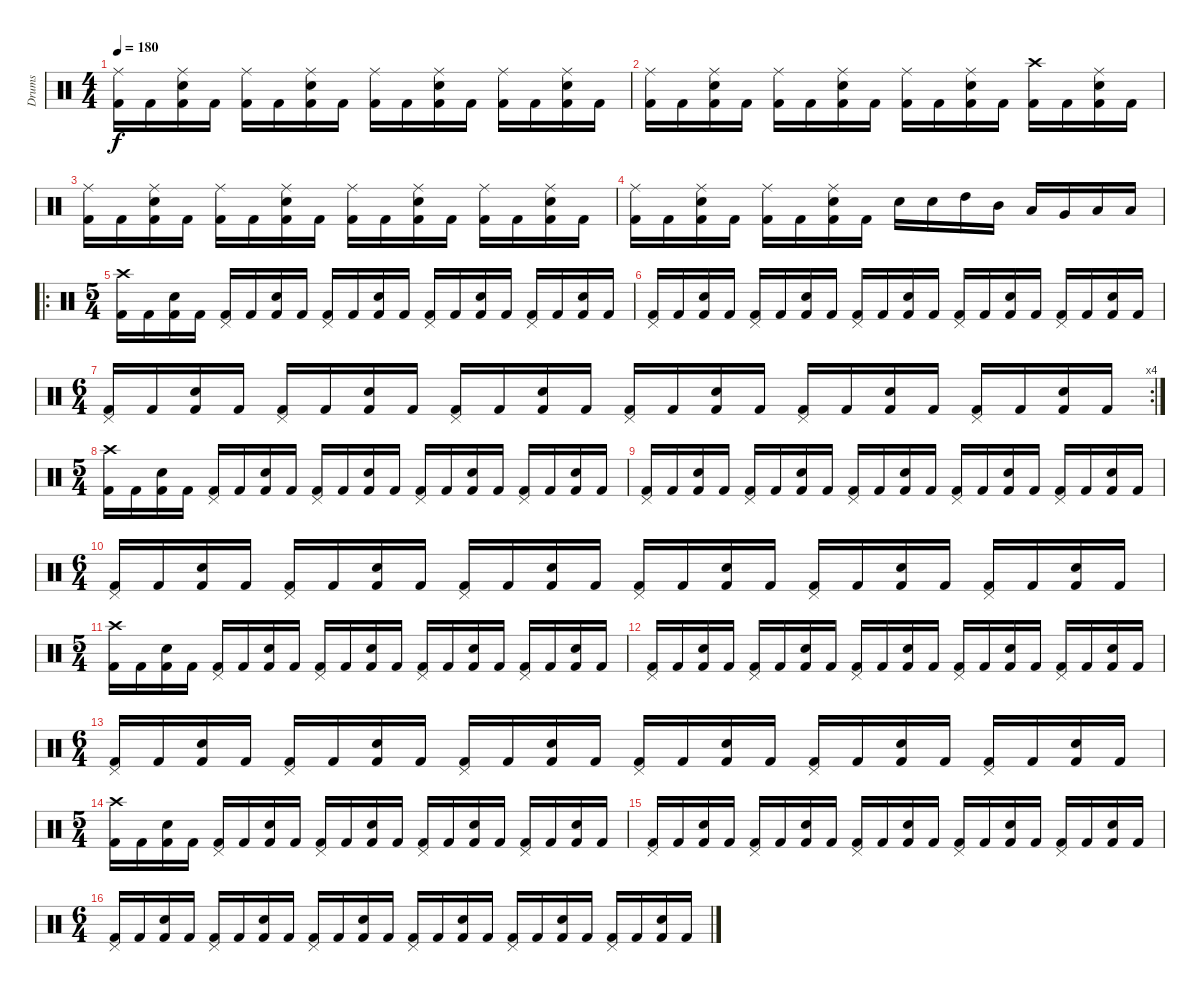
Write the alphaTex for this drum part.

\track ("Drums" "Drums") {instrument percussion}
\staff {score}
\articulation defaults
\ts (4 4)
\tempo 180
\clef neutral
\ks c
("Ride (middle)" "Kick (hit) 2").16{dy f} "Kick (hit) 2".16 ("Ride (middle)" "Electric Snare (hit)" "Kick (hit) 2").16 "Kick (hit) 2".16 ("Ride (middle)" "Kick (hit) 2").16 "Kick (hit) 2".16 ("Ride (middle)" "Electric Snare (hit)" "Kick (hit) 2").16 "Kick (hit) 2".16 ("Ride (middle)" "Kick (hit) 2").16 "Kick (hit) 2".16 ("Ride (middle)" "Electric Snare (hit)" "Kick (hit) 2").16 "Kick (hit) 2".16 ("Ride (middle)" "Kick (hit) 2").16 "Kick (hit) 2".16 ("Ride (middle)" "Electric Snare (hit)" "Kick (hit) 2").16 "Kick (hit) 2".16 |
("Ride (middle)" "Kick (hit) 2").16 "Kick (hit) 2".16 ("Ride (middle)" "Electric Snare (hit)" "Kick (hit) 2").16 "Kick (hit) 2".16 ("Ride (middle)" "Kick (hit) 2").16 "Kick (hit) 2".16 ("Ride (middle)" "Electric Snare (hit)" "Kick (hit) 2").16 "Kick (hit) 2".16 ("Ride (middle)" "Kick (hit) 2").16 "Kick (hit) 2".16 ("Ride (middle)" "Electric Snare (hit)" "Kick (hit) 2").16 "Kick (hit) 2".16 ("Crash high (hit)" "Kick (hit) 2").16 "Kick (hit) 2".16 ("Ride (middle)" "Electric Snare (hit)" "Kick (hit) 2").16 "Kick (hit) 2".16 |
("Ride (middle)" "Kick (hit) 2").16 "Kick (hit) 2".16 ("Ride (middle)" "Electric Snare (hit)" "Kick (hit) 2").16 "Kick (hit) 2".16 ("Ride (middle)" "Kick (hit) 2").16 "Kick (hit) 2".16 ("Ride (middle)" "Electric Snare (hit)" "Kick (hit) 2").16 "Kick (hit) 2".16 ("Ride (middle)" "Kick (hit) 2").16 "Kick (hit) 2".16 ("Ride (middle)" "Electric Snare (hit)" "Kick (hit) 2").16 "Kick (hit) 2".16 ("Ride (middle)" "Kick (hit) 2").16 "Kick (hit) 2".16 ("Ride (middle)" "Electric Snare (hit)" "Kick (hit) 2").16 "Kick (hit) 2".16 |
("Ride (middle)" "Kick (hit) 2").16 "Kick (hit) 2".16 ("Ride (middle)" "Electric Snare (hit)" "Kick (hit) 2").16 "Kick (hit) 2".16 ("Ride (middle)" "Kick (hit) 2").16 "Kick (hit) 2".16 ("Ride (middle)" "Electric Snare (hit)" "Kick (hit) 2").16 "Kick (hit) 2".16 "Electric Snare (hit)".16 "Electric Snare (hit)".16 "High Tom (hit)".16 "Mid Tom (hit)".16 "Low Tom (hit)".16 "Very Low Tom (hit)".16 "Low Tom (hit)".16 "Low Floor Tom (hit)".16 |
\ro
\ts (5 4)
("Crash high (hit)" "Kick (hit) 2").16 "Kick (hit) 2".16 ("Electric Snare (hit)" "Kick (hit) 2").16 "Kick (hit) 2".16 ("Pedal Hi-Hat (hit)" "Kick (hit) 2").16 "Kick (hit) 2".16 ("Electric Snare (hit)" "Kick (hit) 2").16 "Kick (hit) 2".16 ("Pedal Hi-Hat (hit)" "Kick (hit) 2").16 "Kick (hit) 2".16 ("Electric Snare (hit)" "Kick (hit) 2").16 "Kick (hit) 2".16 ("Pedal Hi-Hat (hit)" "Kick (hit) 2").16 "Kick (hit) 2".16 ("Electric Snare (hit)" "Kick (hit) 2").16 "Kick (hit) 2".16 ("Pedal Hi-Hat (hit)" "Kick (hit) 2").16 "Kick (hit) 2".16 ("Electric Snare (hit)" "Kick (hit) 2").16 "Kick (hit) 2".16 |
("Pedal Hi-Hat (hit)" "Kick (hit) 2").16 "Kick (hit) 2".16 ("Electric Snare (hit)" "Kick (hit) 2").16 "Kick (hit) 2".16 ("Pedal Hi-Hat (hit)" "Kick (hit) 2").16 "Kick (hit) 2".16 ("Electric Snare (hit)" "Kick (hit) 2").16 "Kick (hit) 2".16 ("Pedal Hi-Hat (hit)" "Kick (hit) 2").16 "Kick (hit) 2".16 ("Electric Snare (hit)" "Kick (hit) 2").16 "Kick (hit) 2".16 ("Pedal Hi-Hat (hit)" "Kick (hit) 2").16 "Kick (hit) 2".16 ("Electric Snare (hit)" "Kick (hit) 2").16 "Kick (hit) 2".16 ("Pedal Hi-Hat (hit)" "Kick (hit) 2").16 "Kick (hit) 2".16 ("Electric Snare (hit)" "Kick (hit) 2").16 "Kick (hit) 2".16 |
\rc 4
\ts (6 4)
("Pedal Hi-Hat (hit)" "Kick (hit) 2").16 "Kick (hit) 2".16 ("Electric Snare (hit)" "Kick (hit) 2").16 "Kick (hit) 2".16 ("Pedal Hi-Hat (hit)" "Kick (hit) 2").16 "Kick (hit) 2".16 ("Electric Snare (hit)" "Kick (hit) 2").16 "Kick (hit) 2".16 ("Pedal Hi-Hat (hit)" "Kick (hit) 2").16 "Kick (hit) 2".16 ("Electric Snare (hit)" "Kick (hit) 2").16 "Kick (hit) 2".16 ("Pedal Hi-Hat (hit)" "Kick (hit) 2").16 "Kick (hit) 2".16 ("Electric Snare (hit)" "Kick (hit) 2").16 "Kick (hit) 2".16 ("Pedal Hi-Hat (hit)" "Kick (hit) 2").16 "Kick (hit) 2".16 ("Electric Snare (hit)" "Kick (hit) 2").16 "Kick (hit) 2".16 ("Pedal Hi-Hat (hit)" "Kick (hit) 2").16 "Kick (hit) 2".16 ("Electric Snare (hit)" "Kick (hit) 2").16 "Kick (hit) 2".16 |
\ts (5 4)
("Crash high (hit)" "Kick (hit) 2").16 "Kick (hit) 2".16 ("Electric Snare (hit)" "Kick (hit) 2").16 "Kick (hit) 2".16 ("Pedal Hi-Hat (hit)" "Kick (hit) 2").16 "Kick (hit) 2".16 ("Electric Snare (hit)" "Kick (hit) 2").16 "Kick (hit) 2".16 ("Pedal Hi-Hat (hit)" "Kick (hit) 2").16 "Kick (hit) 2".16 ("Electric Snare (hit)" "Kick (hit) 2").16 "Kick (hit) 2".16 ("Pedal Hi-Hat (hit)" "Kick (hit) 2").16 "Kick (hit) 2".16 ("Electric Snare (hit)" "Kick (hit) 2").16 "Kick (hit) 2".16 ("Pedal Hi-Hat (hit)" "Kick (hit) 2").16 "Kick (hit) 2".16 ("Electric Snare (hit)" "Kick (hit) 2").16 "Kick (hit) 2".16 |
("Pedal Hi-Hat (hit)" "Kick (hit) 2").16 "Kick (hit) 2".16 ("Electric Snare (hit)" "Kick (hit) 2").16 "Kick (hit) 2".16 ("Pedal Hi-Hat (hit)" "Kick (hit) 2").16 "Kick (hit) 2".16 ("Electric Snare (hit)" "Kick (hit) 2").16 "Kick (hit) 2".16 ("Pedal Hi-Hat (hit)" "Kick (hit) 2").16 "Kick (hit) 2".16 ("Electric Snare (hit)" "Kick (hit) 2").16 "Kick (hit) 2".16 ("Pedal Hi-Hat (hit)" "Kick (hit) 2").16 "Kick (hit) 2".16 ("Electric Snare (hit)" "Kick (hit) 2").16 "Kick (hit) 2".16 ("Pedal Hi-Hat (hit)" "Kick (hit) 2").16 "Kick (hit) 2".16 ("Electric Snare (hit)" "Kick (hit) 2").16 "Kick (hit) 2".16 |
\ts (6 4)
("Pedal Hi-Hat (hit)" "Kick (hit) 2").16 "Kick (hit) 2".16 ("Electric Snare (hit)" "Kick (hit) 2").16 "Kick (hit) 2".16 ("Pedal Hi-Hat (hit)" "Kick (hit) 2").16 "Kick (hit) 2".16 ("Electric Snare (hit)" "Kick (hit) 2").16 "Kick (hit) 2".16 ("Pedal Hi-Hat (hit)" "Kick (hit) 2").16 "Kick (hit) 2".16 ("Electric Snare (hit)" "Kick (hit) 2").16 "Kick (hit) 2".16 ("Pedal Hi-Hat (hit)" "Kick (hit) 2").16 "Kick (hit) 2".16 ("Electric Snare (hit)" "Kick (hit) 2").16 "Kick (hit) 2".16 ("Pedal Hi-Hat (hit)" "Kick (hit) 2").16 "Kick (hit) 2".16 ("Electric Snare (hit)" "Kick (hit) 2").16 "Kick (hit) 2".16 ("Pedal Hi-Hat (hit)" "Kick (hit) 2").16 "Kick (hit) 2".16 ("Electric Snare (hit)" "Kick (hit) 2").16 "Kick (hit) 2".16 |
\ts (5 4)
("Crash high (hit)" "Kick (hit) 2").16 "Kick (hit) 2".16 ("Electric Snare (hit)" "Kick (hit) 2").16 "Kick (hit) 2".16 ("Pedal Hi-Hat (hit)" "Kick (hit) 2").16 "Kick (hit) 2".16 ("Electric Snare (hit)" "Kick (hit) 2").16 "Kick (hit) 2".16 ("Pedal Hi-Hat (hit)" "Kick (hit) 2").16 "Kick (hit) 2".16 ("Electric Snare (hit)" "Kick (hit) 2").16 "Kick (hit) 2".16 ("Pedal Hi-Hat (hit)" "Kick (hit) 2").16 "Kick (hit) 2".16 ("Electric Snare (hit)" "Kick (hit) 2").16 "Kick (hit) 2".16 ("Pedal Hi-Hat (hit)" "Kick (hit) 2").16 "Kick (hit) 2".16 ("Electric Snare (hit)" "Kick (hit) 2").16 "Kick (hit) 2".16 |
("Pedal Hi-Hat (hit)" "Kick (hit) 2").16 "Kick (hit) 2".16 ("Electric Snare (hit)" "Kick (hit) 2").16 "Kick (hit) 2".16 ("Pedal Hi-Hat (hit)" "Kick (hit) 2").16 "Kick (hit) 2".16 ("Electric Snare (hit)" "Kick (hit) 2").16 "Kick (hit) 2".16 ("Pedal Hi-Hat (hit)" "Kick (hit) 2").16 "Kick (hit) 2".16 ("Electric Snare (hit)" "Kick (hit) 2").16 "Kick (hit) 2".16 ("Pedal Hi-Hat (hit)" "Kick (hit) 2").16 "Kick (hit) 2".16 ("Electric Snare (hit)" "Kick (hit) 2").16 "Kick (hit) 2".16 ("Pedal Hi-Hat (hit)" "Kick (hit) 2").16 "Kick (hit) 2".16 ("Electric Snare (hit)" "Kick (hit) 2").16 "Kick (hit) 2".16 |
\ts (6 4)
("Pedal Hi-Hat (hit)" "Kick (hit) 2").16 "Kick (hit) 2".16 ("Electric Snare (hit)" "Kick (hit) 2").16 "Kick (hit) 2".16 ("Pedal Hi-Hat (hit)" "Kick (hit) 2").16 "Kick (hit) 2".16 ("Electric Snare (hit)" "Kick (hit) 2").16 "Kick (hit) 2".16 ("Pedal Hi-Hat (hit)" "Kick (hit) 2").16 "Kick (hit) 2".16 ("Electric Snare (hit)" "Kick (hit) 2").16 "Kick (hit) 2".16 ("Pedal Hi-Hat (hit)" "Kick (hit) 2").16 "Kick (hit) 2".16 ("Electric Snare (hit)" "Kick (hit) 2").16 "Kick (hit) 2".16 ("Pedal Hi-Hat (hit)" "Kick (hit) 2").16 "Kick (hit) 2".16 ("Electric Snare (hit)" "Kick (hit) 2").16 "Kick (hit) 2".16 ("Pedal Hi-Hat (hit)" "Kick (hit) 2").16 "Kick (hit) 2".16 ("Electric Snare (hit)" "Kick (hit) 2").16 "Kick (hit) 2".16 |
\ts (5 4)
("Crash high (hit)" "Kick (hit) 2").16 "Kick (hit) 2".16 ("Electric Snare (hit)" "Kick (hit) 2").16 "Kick (hit) 2".16 ("Pedal Hi-Hat (hit)" "Kick (hit) 2").16 "Kick (hit) 2".16 ("Electric Snare (hit)" "Kick (hit) 2").16 "Kick (hit) 2".16 ("Pedal Hi-Hat (hit)" "Kick (hit) 2").16 "Kick (hit) 2".16 ("Electric Snare (hit)" "Kick (hit) 2").16 "Kick (hit) 2".16 ("Pedal Hi-Hat (hit)" "Kick (hit) 2").16 "Kick (hit) 2".16 ("Electric Snare (hit)" "Kick (hit) 2").16 "Kick (hit) 2".16 ("Pedal Hi-Hat (hit)" "Kick (hit) 2").16 "Kick (hit) 2".16 ("Electric Snare (hit)" "Kick (hit) 2").16 "Kick (hit) 2".16 |
("Pedal Hi-Hat (hit)" "Kick (hit) 2").16 "Kick (hit) 2".16 ("Electric Snare (hit)" "Kick (hit) 2").16 "Kick (hit) 2".16 ("Pedal Hi-Hat (hit)" "Kick (hit) 2").16 "Kick (hit) 2".16 ("Electric Snare (hit)" "Kick (hit) 2").16 "Kick (hit) 2".16 ("Pedal Hi-Hat (hit)" "Kick (hit) 2").16 "Kick (hit) 2".16 ("Electric Snare (hit)" "Kick (hit) 2").16 "Kick (hit) 2".16 ("Pedal Hi-Hat (hit)" "Kick (hit) 2").16 "Kick (hit) 2".16 ("Electric Snare (hit)" "Kick (hit) 2").16 "Kick (hit) 2".16 ("Pedal Hi-Hat (hit)" "Kick (hit) 2").16 "Kick (hit) 2".16 ("Electric Snare (hit)" "Kick (hit) 2").16 "Kick (hit) 2".16 |
\ts (6 4)
("Pedal Hi-Hat (hit)" "Kick (hit) 2").16 "Kick (hit) 2".16 ("Electric Snare (hit)" "Kick (hit) 2").16 "Kick (hit) 2".16 ("Pedal Hi-Hat (hit)" "Kick (hit) 2").16 "Kick (hit) 2".16 ("Electric Snare (hit)" "Kick (hit) 2").16 "Kick (hit) 2".16 ("Pedal Hi-Hat (hit)" "Kick (hit) 2").16 "Kick (hit) 2".16 ("Electric Snare (hit)" "Kick (hit) 2").16 "Kick (hit) 2".16 ("Pedal Hi-Hat (hit)" "Kick (hit) 2").16 "Kick (hit) 2".16 ("Electric Snare (hit)" "Kick (hit) 2").16 "Kick (hit) 2".16 ("Pedal Hi-Hat (hit)" "Kick (hit) 2").16 "Kick (hit) 2".16 ("Electric Snare (hit)" "Kick (hit) 2").16 "Kick (hit) 2".16 ("Pedal Hi-Hat (hit)" "Kick (hit) 2").16 "Kick (hit) 2".16 ("Electric Snare (hit)" "Kick (hit) 2").16 "Kick (hit) 2".16
